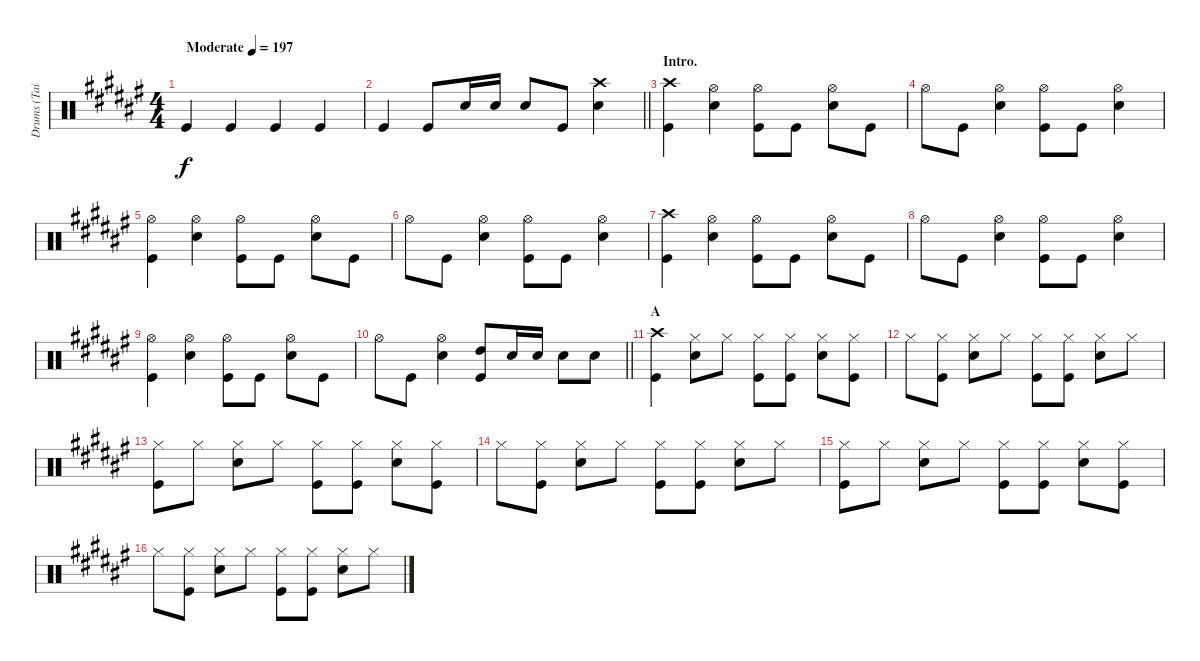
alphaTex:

\track ("Drums (Tainaka Ritsu)" "Drums (Tai") {instrument percussion}
\staff {score}
\articulation defaults
\ts (4 4)
\tempo (197 "Moderate")
\clef neutral
\ks f# "Kick (hit)".4{dy f} "Kick (hit)".4 "Kick (hit)".4 "Kick (hit)".4
|
\barLineRight lightlight "Kick (hit)".4 "Kick (hit)".8 "Snare (hit) 2".16 "Snare (hit) 2".16 "Snare (hit) 2".8 "Kick (hit)".8
("Crash high (hit)" "Snare (hit) 2").4 |
\section ("" "Intro.")
("Crash high (hit)" "Kick (hit)").4 ("Hi-Hat (open)" "Snare (hit) 2").4 ("Hi-Hat (open)" "Kick (hit)").8 "Kick (hit)".8 ("Hi-Hat (open)" "Snare (hit) 2").8 "Kick (hit)".8 |
"Hi-Hat (open)".8 "Kick (hit)".8 ("Hi-Hat (open)" "Snare (hit) 2").4 ("Hi-Hat (open)" "Kick (hit)").8 "Kick (hit)".8 ("Hi-Hat (open)" "Snare (hit) 2").4 |
("Hi-Hat (open)" "Kick (hit)").4 ("Hi-Hat (open)" "Snare (hit) 2").4 ("Hi-Hat (open)" "Kick (hit)").8 "Kick (hit)".8 ("Hi-Hat (open)" "Snare (hit) 2").8 "Kick (hit)".8 |
"Hi-Hat (open)".8 "Kick (hit)".8 ("Hi-Hat (open)" "Snare (hit) 2").4 ("Hi-Hat (open)" "Kick (hit)").8 "Kick (hit)".8 ("Hi-Hat (open)" "Snare (hit) 2").4 |
("Crash high (hit)" "Kick (hit)").4 ("Hi-Hat (open)" "Snare (hit) 2").4 ("Hi-Hat (open)" "Kick (hit)").8 "Kick (hit)".8 ("Hi-Hat (open)" "Snare (hit) 2").8 "Kick (hit)".8 |
"Hi-Hat (open)".8 "Kick (hit)".8 ("Hi-Hat (open)" "Snare (hit) 2").4 ("Hi-Hat (open)" "Kick (hit)").8 "Kick (hit)".8 ("Hi-Hat (open)" "Snare (hit) 2").4 |
("Hi-Hat (open)" "Kick (hit)").4 ("Hi-Hat (open)" "Snare (hit) 2").4 ("Hi-Hat (open)" "Kick (hit)").8 "Kick (hit)".8 ("Hi-Hat (open)" "Snare (hit) 2").8 "Kick (hit)".8 |
\barLineRight lightlight "Hi-Hat (open)".8 "Kick (hit)".8
("Hi-Hat (open)" "Snare (hit) 2").4 ("High Tom (hit)" "Kick (hit)").8 "Snare (hit) 2".16 "Snare (hit) 2".16 "Snare (hit) 2".8 "Snare (hit) 2".8 |
\section ("" "A")
("Crash high (hit)" "Kick (hit)").4 ("Hi-Hat (closed)" "Snare (hit) 2").8 "Hi-Hat (closed)".8 ("Hi-Hat (closed)" "Kick (hit)").8 ("Hi-Hat (closed)" "Kick (hit)").8 ("Hi-Hat (closed)" "Snare (hit) 2").8 ("Hi-Hat (closed)" "Kick (hit)").8 |
"Hi-Hat (closed)".8 ("Hi-Hat (closed)" "Kick (hit)").8 ("Hi-Hat (closed)" "Snare (hit) 2").8 "Hi-Hat (closed)".8 ("Hi-Hat (closed)" "Kick (hit)").8 ("Hi-Hat (closed)" "Kick (hit)").8 ("Hi-Hat (closed)" "Snare (hit) 2").8 "Hi-Hat (closed)".8 |
("Hi-Hat (closed)" "Kick (hit)").8 "Hi-Hat (closed)".8 ("Hi-Hat (closed)" "Snare (hit) 2").8 "Hi-Hat (closed)".8 ("Hi-Hat (closed)" "Kick (hit)").8 ("Hi-Hat (closed)" "Kick (hit)").8 ("Hi-Hat (closed)" "Snare (hit) 2").8 ("Hi-Hat (closed)" "Kick (hit)").8 |
"Hi-Hat (closed)".8 ("Hi-Hat (closed)" "Kick (hit)").8 ("Hi-Hat (closed)" "Snare (hit) 2").8 "Hi-Hat (closed)".8 ("Hi-Hat (closed)" "Kick (hit)").8 ("Hi-Hat (closed)" "Kick (hit)").8 ("Hi-Hat (closed)" "Snare (hit) 2").8 "Hi-Hat (closed)".8 |
("Hi-Hat (closed)" "Kick (hit)").8 "Hi-Hat (closed)".8 ("Hi-Hat (closed)" "Snare (hit) 2").8 "Hi-Hat (closed)".8 ("Hi-Hat (closed)" "Kick (hit)").8 ("Hi-Hat (closed)" "Kick (hit)").8 ("Hi-Hat (closed)" "Snare (hit) 2").8 ("Hi-Hat (closed)" "Kick (hit)").8 |
"Hi-Hat (closed)".8 ("Hi-Hat (closed)" "Kick (hit)").8 ("Hi-Hat (closed)" "Snare (hit) 2").8 "Hi-Hat (closed)".8 ("Hi-Hat (closed)" "Kick (hit)").8 ("Hi-Hat (closed)" "Kick (hit)").8 ("Hi-Hat (closed)" "Snare (hit) 2").8 "Hi-Hat (closed)".8
